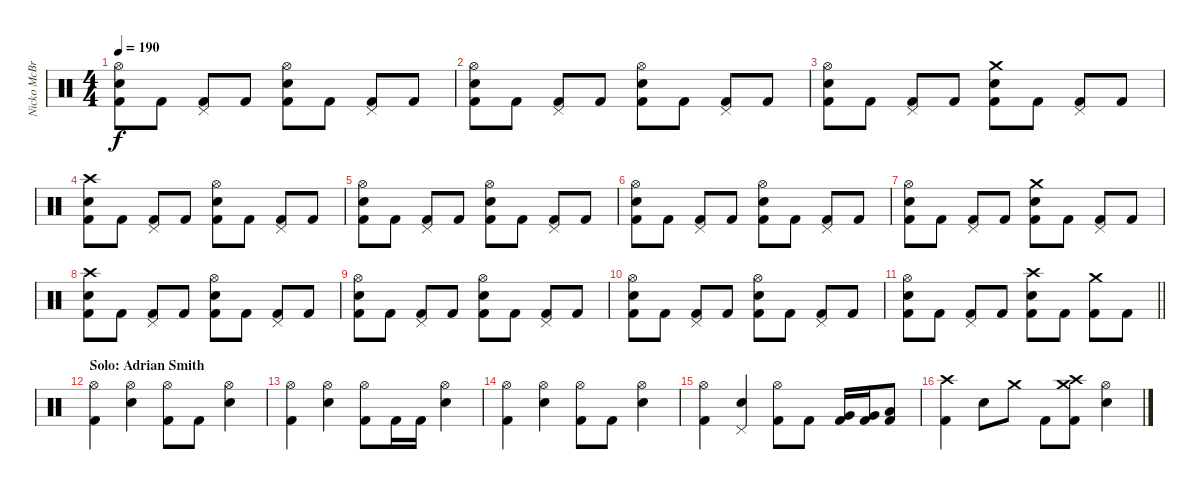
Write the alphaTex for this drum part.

\track ("Nicko McBrain" "Nicko McBr") {instrument percussion}
\staff {score}
\articulation defaults
\ts (4 4)
\tempo 190
\clef neutral
\ks c
("Hi-Hat (open)" "Electric Snare (hit)" "Kick (hit) 2").8{dy f} "Kick (hit) 2".8 ("Pedal Hi-Hat (hit)" "Kick (hit) 2").8 "Kick (hit) 2".8 ("Hi-Hat (open)" "Electric Snare (hit)" "Kick (hit) 2").8 "Kick (hit) 2".8 ("Pedal Hi-Hat (hit)" "Kick (hit) 2").8 "Kick (hit) 2".8 |
("Hi-Hat (open)" "Electric Snare (hit)" "Kick (hit) 2").8 "Kick (hit) 2".8 ("Pedal Hi-Hat (hit)" "Kick (hit) 2").8 "Kick (hit) 2".8 ("Hi-Hat (open)" "Electric Snare (hit)" "Kick (hit) 2").8 "Kick (hit) 2".8 ("Pedal Hi-Hat (hit)" "Kick (hit) 2").8 "Kick (hit) 2".8 |
("Hi-Hat (open)" "Electric Snare (hit)" "Kick (hit) 2").8 "Kick (hit) 2".8 ("Pedal Hi-Hat (hit)" "Kick (hit) 2").8 "Kick (hit) 2".8 ("Crash medium (hit)" "Electric Snare (hit)" "Kick (hit) 2").8 "Kick (hit) 2".8 ("Pedal Hi-Hat (hit)" "Kick (hit) 2").8 "Kick (hit) 2".8 |
("Crash high (hit)" "Electric Snare (hit)" "Kick (hit) 2").8 "Kick (hit) 2".8 ("Pedal Hi-Hat (hit)" "Kick (hit) 2").8 "Kick (hit) 2".8 ("Hi-Hat (open)" "Electric Snare (hit)" "Kick (hit) 2").8 "Kick (hit) 2".8 ("Pedal Hi-Hat (hit)" "Kick (hit) 2").8 "Kick (hit) 2".8 |
("Hi-Hat (open)" "Electric Snare (hit)" "Kick (hit) 2").8 "Kick (hit) 2".8 ("Pedal Hi-Hat (hit)" "Kick (hit) 2").8 "Kick (hit) 2".8 ("Hi-Hat (open)" "Electric Snare (hit)" "Kick (hit) 2").8 "Kick (hit) 2".8 ("Pedal Hi-Hat (hit)" "Kick (hit) 2").8 "Kick (hit) 2".8 |
("Hi-Hat (open)" "Electric Snare (hit)" "Kick (hit) 2").8 "Kick (hit) 2".8 ("Pedal Hi-Hat (hit)" "Kick (hit) 2").8 "Kick (hit) 2".8 ("Hi-Hat (open)" "Electric Snare (hit)" "Kick (hit) 2").8 "Kick (hit) 2".8 ("Pedal Hi-Hat (hit)" "Kick (hit) 2").8 "Kick (hit) 2".8 |
("Hi-Hat (open)" "Electric Snare (hit)" "Kick (hit) 2").8 "Kick (hit) 2".8 ("Pedal Hi-Hat (hit)" "Kick (hit) 2").8 "Kick (hit) 2".8 ("Crash medium (hit)" "Electric Snare (hit)" "Kick (hit) 2").8 "Kick (hit) 2".8 ("Pedal Hi-Hat (hit)" "Kick (hit) 2").8 "Kick (hit) 2".8 |
("Crash high (hit)" "Electric Snare (hit)" "Kick (hit) 2").8 "Kick (hit) 2".8 ("Pedal Hi-Hat (hit)" "Kick (hit) 2").8 "Kick (hit) 2".8 ("Hi-Hat (open)" "Electric Snare (hit)" "Kick (hit) 2").8 "Kick (hit) 2".8 ("Pedal Hi-Hat (hit)" "Kick (hit) 2").8 "Kick (hit) 2".8 |
("Hi-Hat (open)" "Electric Snare (hit)" "Kick (hit) 2").8 "Kick (hit) 2".8 ("Pedal Hi-Hat (hit)" "Kick (hit) 2").8 "Kick (hit) 2".8 ("Hi-Hat (open)" "Electric Snare (hit)" "Kick (hit) 2").8 "Kick (hit) 2".8 ("Pedal Hi-Hat (hit)" "Kick (hit) 2").8 "Kick (hit) 2".8 |
("Hi-Hat (open)" "Electric Snare (hit)" "Kick (hit) 2").8 "Kick (hit) 2".8 ("Pedal Hi-Hat (hit)" "Kick (hit) 2").8 "Kick (hit) 2".8 ("Hi-Hat (open)" "Electric Snare (hit)" "Kick (hit) 2").8 "Kick (hit) 2".8 ("Pedal Hi-Hat (hit)" "Kick (hit) 2").8 "Kick (hit) 2".8 |
\barLineRight lightlight
("Hi-Hat (open)" "Electric Snare (hit)" "Kick (hit) 2").8 "Kick (hit) 2".8 ("Pedal Hi-Hat (hit)" "Kick (hit) 2").8 "Kick (hit) 2".8 ("Crash high (hit)" "Electric Snare (hit)" "Kick (hit) 2").8 "Kick (hit) 2".8 ("Crash medium (hit)" "Kick (hit) 2").8 "Kick (hit) 2".8 |
\section ("" "Solo: Adrian Smith")
("Hi-Hat (open)" "Kick (hit) 2").4 ("Hi-Hat (open)" "Electric Snare (hit)").4 ("Hi-Hat (open)" "Kick (hit) 2").8 "Kick (hit) 2".8 ("Hi-Hat (open)" "Electric Snare (hit)").4 |
("Hi-Hat (open)" "Kick (hit) 2").4 ("Hi-Hat (open)" "Electric Snare (hit)").4 ("Hi-Hat (open)" "Kick (hit) 2").8 "Kick (hit) 2".16 "Kick (hit) 2".16 ("Hi-Hat (open)" "Electric Snare (hit)").4 |
("Hi-Hat (open)" "Kick (hit) 2").4 ("Hi-Hat (open)" "Electric Snare (hit)").4 ("Hi-Hat (open)" "Kick (hit) 2").8 "Kick (hit) 2".8 ("Hi-Hat (open)" "Electric Snare (hit)").4 |
("Hi-Hat (open)" "Kick (hit) 2").4 ("Pedal Hi-Hat (hit)" "Electric Snare (hit)").4 ("Hi-Hat (open)" "Kick (hit) 2").8 "Kick (hit) 2".8 ("Very Low Tom (hit)" "Kick (hit) 2").16 ("Very Low Tom (hit)" "Kick (hit) 2").16 ("Low Floor Tom (hit)" "Kick (hit) 2").8 |
("Crash high (hit)" "Kick (hit) 2").4 "Electric Snare (hit)".8 "Crash medium (hit)".8 "Kick (hit) 2".8 ("Crash medium (hit)" "Crash high (hit)" "Kick (hit) 2").8 ("Hi-Hat (open)" "Electric Snare (hit)").4
